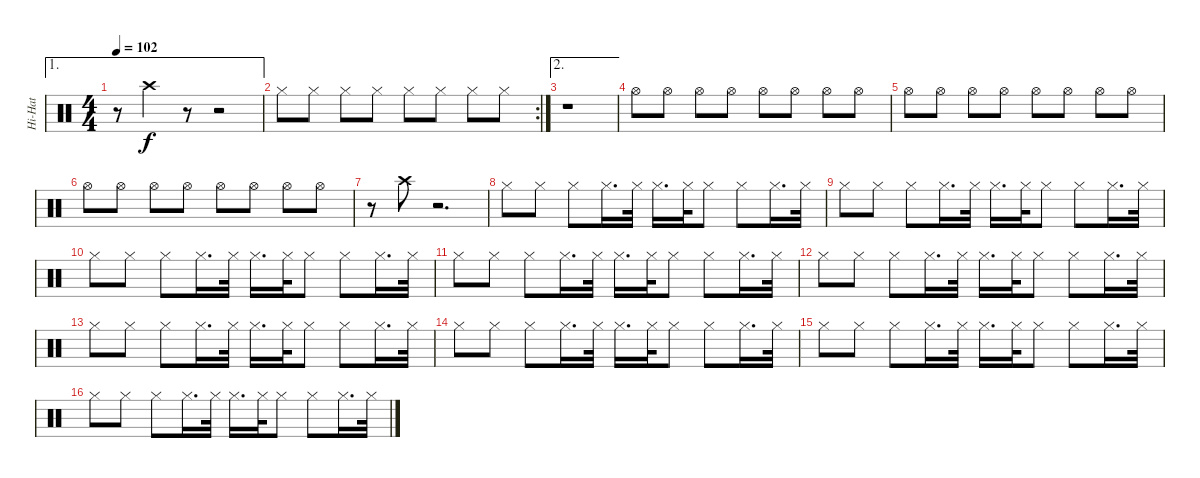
\track ("Hi-Hat" "Hi-Hat") {instrument percussion}
\staff {score}
\articulation defaults
\ae 1
\ts (4 4)
\tempo 102
\clef neutral
\ks c
r.8{dy f} "Crash high (hit)".4 r.8 r.2 |
\rc 2 "Hi-Hat (closed)".8 "Hi-Hat (closed)".8 "Hi-Hat (closed)".8 "Hi-Hat (closed)".8 "Hi-Hat (closed)".8 "Hi-Hat (closed)".8 "Hi-Hat (closed)".8 "Hi-Hat (closed)".8
|
\ae 2
r.1 |
"Hi-Hat (open)".8 "Hi-Hat (open)".8 "Hi-Hat (open)".8 "Hi-Hat (open)".8 "Hi-Hat (open)".8 "Hi-Hat (open)".8 "Hi-Hat (open)".8 "Hi-Hat (open)".8 |
"Hi-Hat (open)".8 "Hi-Hat (open)".8 "Hi-Hat (open)".8 "Hi-Hat (open)".8 "Hi-Hat (open)".8 "Hi-Hat (open)".8 "Hi-Hat (open)".8 "Hi-Hat (open)".8 |
"Hi-Hat (open)".8 "Hi-Hat (open)".8 "Hi-Hat (open)".8 "Hi-Hat (open)".8 "Hi-Hat (open)".8 "Hi-Hat (open)".8 "Hi-Hat (open)".8 "Hi-Hat (open)".8 |
r.8 "Crash high (hit)".8 r.2{d} |
"Hi-Hat (closed)".8 "Hi-Hat (closed)".8 "Hi-Hat (closed)".8 "Hi-Hat (closed)".16{d} "Hi-Hat (closed)".32 "Hi-Hat (closed)".16{d} "Hi-Hat (closed)".32 "Hi-Hat (closed)".8 "Hi-Hat (closed)".8 "Hi-Hat (closed)".16{d} "Hi-Hat (closed)".32 |
"Hi-Hat (closed)".8 "Hi-Hat (closed)".8 "Hi-Hat (closed)".8 "Hi-Hat (closed)".16{d} "Hi-Hat (closed)".32 "Hi-Hat (closed)".16{d} "Hi-Hat (closed)".32 "Hi-Hat (closed)".8 "Hi-Hat (closed)".8 "Hi-Hat (closed)".16{d} "Hi-Hat (closed)".32 |
"Hi-Hat (closed)".8 "Hi-Hat (closed)".8 "Hi-Hat (closed)".8 "Hi-Hat (closed)".16{d} "Hi-Hat (closed)".32 "Hi-Hat (closed)".16{d} "Hi-Hat (closed)".32 "Hi-Hat (closed)".8 "Hi-Hat (closed)".8 "Hi-Hat (closed)".16{d} "Hi-Hat (closed)".32 |
"Hi-Hat (closed)".8 "Hi-Hat (closed)".8 "Hi-Hat (closed)".8 "Hi-Hat (closed)".16{d} "Hi-Hat (closed)".32 "Hi-Hat (closed)".16{d} "Hi-Hat (closed)".32 "Hi-Hat (closed)".8 "Hi-Hat (closed)".8 "Hi-Hat (closed)".16{d} "Hi-Hat (closed)".32 |
"Hi-Hat (closed)".8 "Hi-Hat (closed)".8 "Hi-Hat (closed)".8 "Hi-Hat (closed)".16{d} "Hi-Hat (closed)".32 "Hi-Hat (closed)".16{d} "Hi-Hat (closed)".32 "Hi-Hat (closed)".8 "Hi-Hat (closed)".8 "Hi-Hat (closed)".16{d} "Hi-Hat (closed)".32 |
"Hi-Hat (closed)".8 "Hi-Hat (closed)".8 "Hi-Hat (closed)".8 "Hi-Hat (closed)".16{d} "Hi-Hat (closed)".32 "Hi-Hat (closed)".16{d} "Hi-Hat (closed)".32 "Hi-Hat (closed)".8 "Hi-Hat (closed)".8 "Hi-Hat (closed)".16{d} "Hi-Hat (closed)".32 |
"Hi-Hat (closed)".8 "Hi-Hat (closed)".8 "Hi-Hat (closed)".8 "Hi-Hat (closed)".16{d} "Hi-Hat (closed)".32 "Hi-Hat (closed)".16{d} "Hi-Hat (closed)".32 "Hi-Hat (closed)".8 "Hi-Hat (closed)".8 "Hi-Hat (closed)".16{d} "Hi-Hat (closed)".32 |
"Hi-Hat (closed)".8 "Hi-Hat (closed)".8 "Hi-Hat (closed)".8 "Hi-Hat (closed)".16{d} "Hi-Hat (closed)".32 "Hi-Hat (closed)".16{d} "Hi-Hat (closed)".32 "Hi-Hat (closed)".8 "Hi-Hat (closed)".8 "Hi-Hat (closed)".16{d} "Hi-Hat (closed)".32 |
"Hi-Hat (closed)".8 "Hi-Hat (closed)".8 "Hi-Hat (closed)".8 "Hi-Hat (closed)".16{d} "Hi-Hat (closed)".32 "Hi-Hat (closed)".16{d} "Hi-Hat (closed)".32 "Hi-Hat (closed)".8 "Hi-Hat (closed)".8 "Hi-Hat (closed)".16{d} "Hi-Hat (closed)".32
